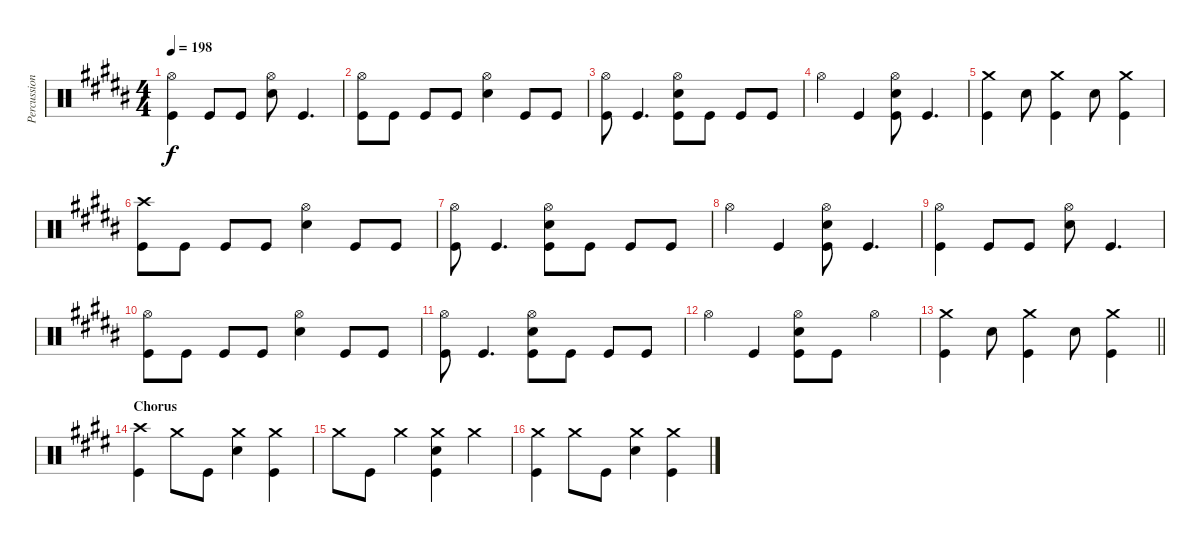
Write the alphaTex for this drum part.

\track ("Percussion" "Percussion") {instrument percussion}
\staff {score}
\articulation defaults
\ts (4 4)
\tempo 198
\clef neutral
\ks b
("Hi-Hat (open)" "Kick (hit)").4{dy f} "Kick (hit)".8 "Kick (hit)".8 ("Hi-Hat (open)" "Electric Snare (hit)").8 "Kick (hit)".4{d} |
("Hi-Hat (open)" "Kick (hit)").8 "Kick (hit)".8 "Kick (hit)".8 "Kick (hit)".8 ("Hi-Hat (open)" "Electric Snare (hit)").4 "Kick (hit)".8 "Kick (hit)".8 |
("Hi-Hat (open)" "Kick (hit)").8 "Kick (hit)".4{d} ("Hi-Hat (open)" "Electric Snare (hit)" "Kick (hit)").8 "Kick (hit)".8 "Kick (hit)".8 "Kick (hit)".8 |
"Hi-Hat (open)".4 "Kick (hit)".4 ("Hi-Hat (open)" "Electric Snare (hit)" "Kick (hit)").8 "Kick (hit)".4{d} |
("Crash medium (hit)" "Kick (hit)").4 "Electric Snare (hit)".8 ("Crash medium (hit)" "Kick (hit)").4 "Electric Snare (hit)".8 ("Crash medium (hit)" "Kick (hit)").4 |
("Crash high (hit)" "Kick (hit)").8 "Kick (hit)".8 "Kick (hit)".8 "Kick (hit)".8 ("Hi-Hat (open)" "Electric Snare (hit)").4 "Kick (hit)".8 "Kick (hit)".8 |
("Hi-Hat (open)" "Kick (hit)").8 "Kick (hit)".4{d} ("Hi-Hat (open)" "Electric Snare (hit)" "Kick (hit)").8 "Kick (hit)".8 "Kick (hit)".8 "Kick (hit)".8 |
"Hi-Hat (open)".4 "Kick (hit)".4 ("Hi-Hat (open)" "Electric Snare (hit)" "Kick (hit)").8 "Kick (hit)".4{d} |
("Hi-Hat (open)" "Kick (hit)").4 "Kick (hit)".8 "Kick (hit)".8 ("Hi-Hat (open)" "Electric Snare (hit)").8 "Kick (hit)".4{d} |
("Hi-Hat (open)" "Kick (hit)").8 "Kick (hit)".8 "Kick (hit)".8 "Kick (hit)".8 ("Hi-Hat (open)" "Electric Snare (hit)").4 "Kick (hit)".8 "Kick (hit)".8 |
("Hi-Hat (open)" "Kick (hit)").8 "Kick (hit)".4{d} ("Hi-Hat (open)" "Electric Snare (hit)" "Kick (hit)").8 "Kick (hit)".8 "Kick (hit)".8 "Kick (hit)".8 |
"Hi-Hat (open)".4 "Kick (hit)".4 ("Hi-Hat (open)" "Electric Snare (hit)" "Kick (hit)").8 "Kick (hit)".8 "Hi-Hat (open)".4 |
\barLineRight lightlight
("Crash medium (hit)" "Kick (hit)").4 "Electric Snare (hit)".8 ("Crash medium (hit)" "Kick (hit)").4 "Electric Snare (hit)".8 ("Crash medium (hit)" "Kick (hit)").4 |
\section ("" "Chorus")
\ks e
("Crash high (hit)" "Kick (hit)").4 "Crash medium (hit)".8 "Kick (hit)".8 ("Crash medium (hit)" "Electric Snare (hit)").4 ("Crash medium (hit)" "Kick (hit)").4 |
"Crash medium (hit)".8 "Kick (hit)".8 "Crash medium (hit)".4 ("Crash medium (hit)" "Electric Snare (hit)" "Kick (hit)").4 "Crash medium (hit)".4 |
("Crash medium (hit)" "Kick (hit)").4 "Crash medium (hit)".8 "Kick (hit)".8 ("Crash medium (hit)" "Electric Snare (hit)").4 ("Crash medium (hit)" "Kick (hit)").4
